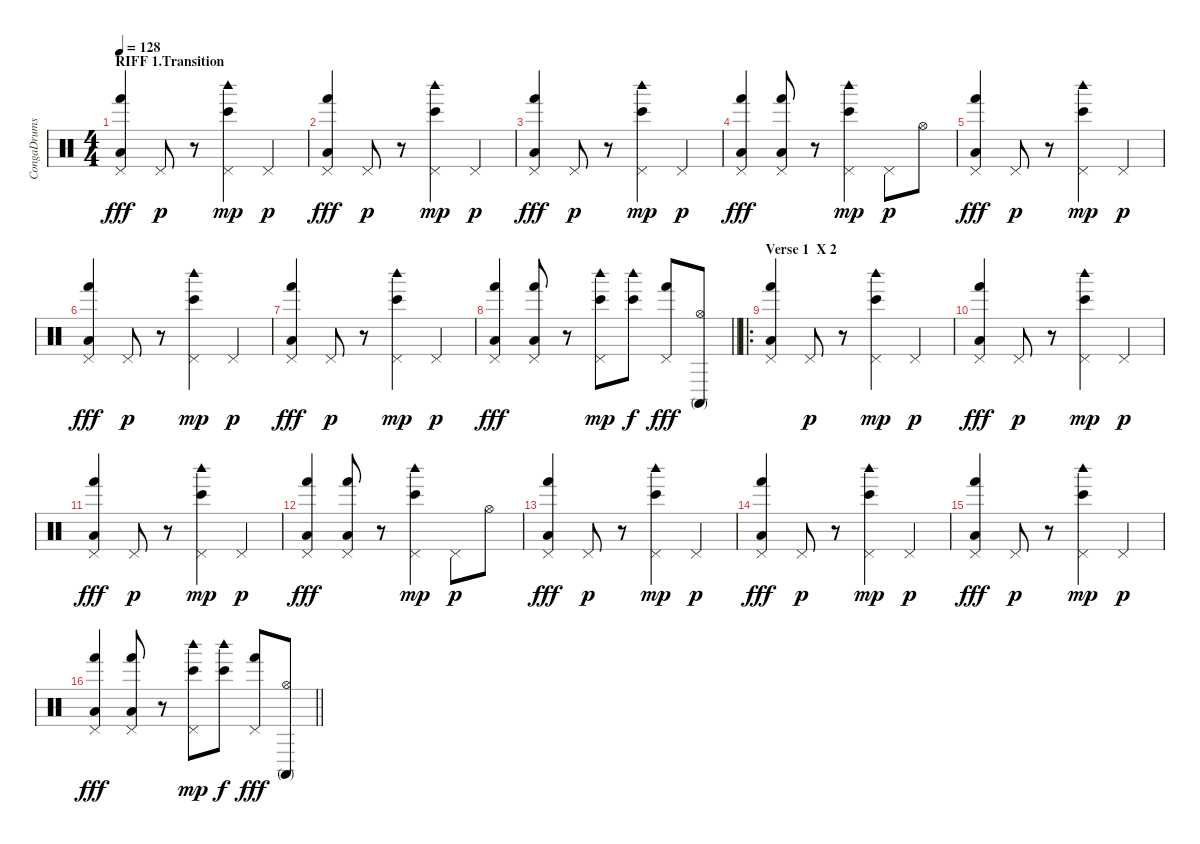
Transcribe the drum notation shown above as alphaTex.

\track ("CongaDrums" "CongaDrums") {instrument percussion}
\staff {score}
\articulation defaults
\ts (4 4)
\section ("" "RIFF 1.Transition")
\tempo 128
\clef neutral
\ks c
("Pedal Hi-Hat (hit)" "Hand (hit)" "Low Floor Tom (hit)").4{dy fff} "Pedal Hi-Hat (hit)".8{dy p} r.8 ("Bongo High (hit)" "Woodblock high (hit)" "Pedal Hi-Hat (hit)").4{dy mp} "Pedal Hi-Hat (hit)".4{dy p} |
("Pedal Hi-Hat (hit)" "Hand (hit)" "Low Floor Tom (hit)").4{dy fff} "Pedal Hi-Hat (hit)".8{dy p} r.8 ("Bongo High (hit)" "Woodblock high (hit)" "Pedal Hi-Hat (hit)").4{dy mp} "Pedal Hi-Hat (hit)".4{dy p} |
("Pedal Hi-Hat (hit)" "Hand (hit)" "Low Floor Tom (hit)").4{dy fff} "Pedal Hi-Hat (hit)".8{dy p} r.8 ("Bongo High (hit)" "Woodblock high (hit)" "Pedal Hi-Hat (hit)").4{dy mp} "Pedal Hi-Hat (hit)".4{dy p} |
("Pedal Hi-Hat (hit)" "Hand (hit)" "Low Floor Tom (hit)").4{dy fff} ("Pedal Hi-Hat (hit)" "Hand (hit)" "Low Floor Tom (hit)").8 r.8 ("Bongo High (hit)" "Woodblock high (hit)" "Pedal Hi-Hat (hit)").4{dy mp} "Pedal Hi-Hat (hit)".8{dy p} "Hi-Hat (open)".8 |
("Pedal Hi-Hat (hit)" "Hand (hit)" "Low Floor Tom (hit)").4{dy fff} "Pedal Hi-Hat (hit)".8{dy p} r.8 ("Bongo High (hit)" "Woodblock high (hit)" "Pedal Hi-Hat (hit)").4{dy mp} "Pedal Hi-Hat (hit)".4{dy p} |
("Pedal Hi-Hat (hit)" "Hand (hit)" "Low Floor Tom (hit)").4{dy fff} "Pedal Hi-Hat (hit)".8{dy p} r.8 ("Bongo High (hit)" "Woodblock high (hit)" "Pedal Hi-Hat (hit)").4{dy mp} "Pedal Hi-Hat (hit)".4{dy p} |
("Pedal Hi-Hat (hit)" "Hand (hit)" "Low Floor Tom (hit)").4{dy fff} "Pedal Hi-Hat (hit)".8{dy p} r.8 ("Bongo High (hit)" "Woodblock high (hit)" "Pedal Hi-Hat (hit)").4{dy mp} "Pedal Hi-Hat (hit)".4{dy p} |
\barLineRight lightlight
("Pedal Hi-Hat (hit)" "Hand (hit)" "Low Floor Tom (hit)").4{dy fff} ("Pedal Hi-Hat (hit)" "Hand (hit)" "Low Floor Tom (hit)").8 r.8 ("Bongo High (hit)" "Woodblock high (hit)" "Pedal Hi-Hat (hit)").8{dy mp} ("Bongo High (hit)" "Woodblock high (hit)").8{dy f} ("Pedal Hi-Hat (hit)" "Hand (hit)").8{dy fff} ("Hi-Hat (open)" "Conga high (mute)").8 |
\ro
\section ("" "Verse 1  X 2")
("Pedal Hi-Hat (hit)" "Hand (hit)" "Low Floor Tom (hit)").4 "Pedal Hi-Hat (hit)".8{dy p} r.8 ("Bongo High (hit)" "Woodblock high (hit)" "Pedal Hi-Hat (hit)").4{dy mp} "Pedal Hi-Hat (hit)".4{dy p} |
("Pedal Hi-Hat (hit)" "Hand (hit)" "Low Floor Tom (hit)").4{dy fff} "Pedal Hi-Hat (hit)".8{dy p} r.8 ("Bongo High (hit)" "Woodblock high (hit)" "Pedal Hi-Hat (hit)").4{dy mp} "Pedal Hi-Hat (hit)".4{dy p} |
("Pedal Hi-Hat (hit)" "Hand (hit)" "Low Floor Tom (hit)").4{dy fff} "Pedal Hi-Hat (hit)".8{dy p} r.8 ("Bongo High (hit)" "Woodblock high (hit)" "Pedal Hi-Hat (hit)").4{dy mp} "Pedal Hi-Hat (hit)".4{dy p} |
("Pedal Hi-Hat (hit)" "Hand (hit)" "Low Floor Tom (hit)").4{dy fff} ("Pedal Hi-Hat (hit)" "Hand (hit)" "Low Floor Tom (hit)").8 r.8 ("Bongo High (hit)" "Woodblock high (hit)" "Pedal Hi-Hat (hit)").4{dy mp} "Pedal Hi-Hat (hit)".8{dy p} "Hi-Hat (open)".8 |
("Pedal Hi-Hat (hit)" "Hand (hit)" "Low Floor Tom (hit)").4{dy fff} "Pedal Hi-Hat (hit)".8{dy p} r.8 ("Bongo High (hit)" "Woodblock high (hit)" "Pedal Hi-Hat (hit)").4{dy mp} "Pedal Hi-Hat (hit)".4{dy p} |
("Pedal Hi-Hat (hit)" "Hand (hit)" "Low Floor Tom (hit)").4{dy fff} "Pedal Hi-Hat (hit)".8{dy p} r.8 ("Bongo High (hit)" "Woodblock high (hit)" "Pedal Hi-Hat (hit)").4{dy mp} "Pedal Hi-Hat (hit)".4{dy p} |
("Pedal Hi-Hat (hit)" "Hand (hit)" "Low Floor Tom (hit)").4{dy fff} "Pedal Hi-Hat (hit)".8{dy p} r.8 ("Bongo High (hit)" "Woodblock high (hit)" "Pedal Hi-Hat (hit)").4{dy mp} "Pedal Hi-Hat (hit)".4{dy p} |
\barLineRight lightlight
("Pedal Hi-Hat (hit)" "Hand (hit)" "Low Floor Tom (hit)").4{dy fff} ("Pedal Hi-Hat (hit)" "Hand (hit)" "Low Floor Tom (hit)").8 r.8 ("Bongo High (hit)" "Woodblock high (hit)" "Pedal Hi-Hat (hit)").8{dy mp} ("Bongo High (hit)" "Woodblock high (hit)").8{dy f} ("Pedal Hi-Hat (hit)" "Hand (hit)").8{dy fff} ("Hi-Hat (open)" "Conga high (mute)").8
